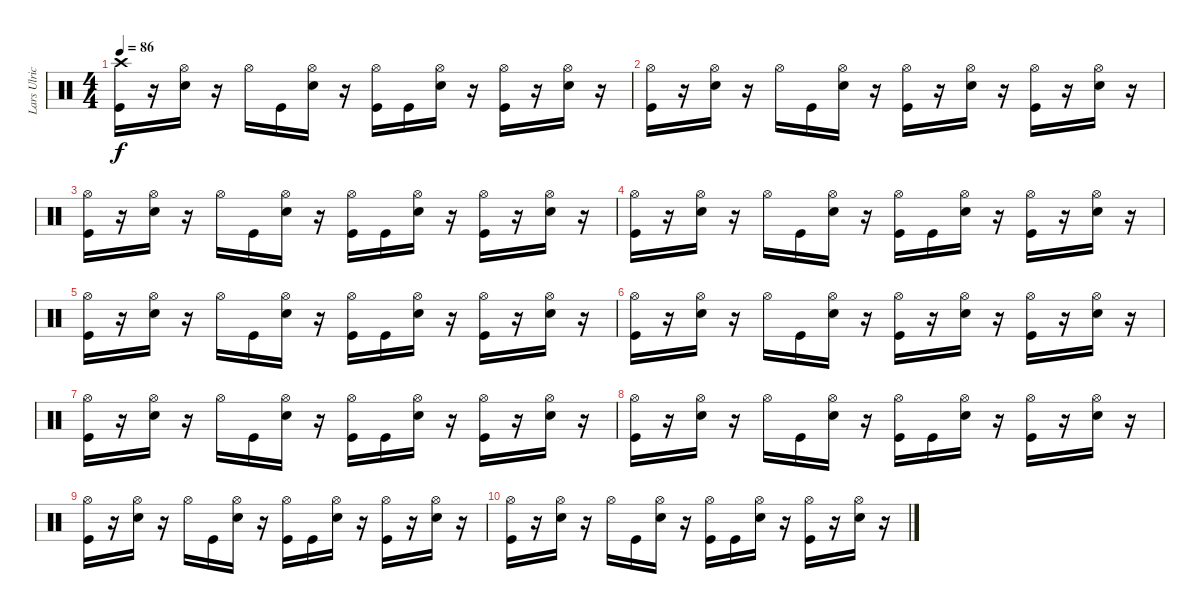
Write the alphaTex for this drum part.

\track ("Lars Ulrich" "Lars Ulric") {instrument percussion}
\staff {score}
\articulation defaults
\ts (4 4)
\tempo 86
\clef neutral
\ks c
("Crash high (hit)" "Kick (hit)").16{dy f volume 15} r.16 ("Hi-Hat (open)" "Snare (hit) 2").16 r.16 "Hi-Hat (open)".16 "Kick (hit)".16 ("Hi-Hat (open)" "Snare (hit) 2").16 r.16 ("Hi-Hat (open)" "Kick (hit)").16 "Kick (hit)".16 ("Hi-Hat (open)" "Snare (hit) 2").16 r.16 ("Hi-Hat (open)" "Kick (hit)").16 r.16 ("Hi-Hat (open)" "Snare (hit) 2").16 r.16 |
("Hi-Hat (open)" "Kick (hit)").16{volume 14} r.16 ("Hi-Hat (open)" "Snare (hit) 2").16 r.16 "Hi-Hat (open)".16 "Kick (hit)".16 ("Hi-Hat (open)" "Snare (hit) 2").16 r.16 ("Hi-Hat (open)" "Kick (hit)").16 r.16 ("Hi-Hat (open)" "Snare (hit) 2").16 r.16 ("Hi-Hat (open)" "Kick (hit)").16 r.16 ("Hi-Hat (open)" "Snare (hit) 2").16 r.16 |
("Hi-Hat (open)" "Kick (hit)").16{volume 14} r.16 ("Hi-Hat (open)" "Snare (hit) 2").16 r.16 "Hi-Hat (open)".16 "Kick (hit)".16 ("Hi-Hat (open)" "Snare (hit) 2").16 r.16 ("Hi-Hat (open)" "Kick (hit)").16 "Kick (hit)".16 ("Hi-Hat (open)" "Snare (hit) 2").16 r.16 ("Hi-Hat (open)" "Kick (hit)").16 r.16 ("Hi-Hat (open)" "Snare (hit) 2").16 r.16 |
("Hi-Hat (open)" "Kick (hit)").16{volume 12} r.16 ("Hi-Hat (open)" "Snare (hit) 2").16 r.16 "Hi-Hat (open)".16 "Kick (hit)".16 ("Hi-Hat (open)" "Snare (hit) 2").16 r.16 ("Hi-Hat (open)" "Kick (hit)").16 "Kick (hit)".16 ("Hi-Hat (open)" "Snare (hit) 2").16 r.16 ("Hi-Hat (open)" "Kick (hit)").16 r.16 ("Hi-Hat (open)" "Snare (hit) 2").16 r.16 |
("Hi-Hat (open)" "Kick (hit)").16{volume 10} r.16 ("Hi-Hat (open)" "Snare (hit) 2").16 r.16 "Hi-Hat (open)".16 "Kick (hit)".16 ("Hi-Hat (open)" "Snare (hit) 2").16 r.16 ("Hi-Hat (open)" "Kick (hit)").16 "Kick (hit)".16 ("Hi-Hat (open)" "Snare (hit) 2").16 r.16 ("Hi-Hat (open)" "Kick (hit)").16 r.16 ("Hi-Hat (open)" "Snare (hit) 2").16 r.16 |
("Hi-Hat (open)" "Kick (hit)").16{volume 8} r.16 ("Hi-Hat (open)" "Snare (hit) 2").16 r.16 "Hi-Hat (open)".16 "Kick (hit)".16 ("Hi-Hat (open)" "Snare (hit) 2").16 r.16 ("Hi-Hat (open)" "Kick (hit)").16 r.16 ("Hi-Hat (open)" "Snare (hit) 2").16 r.16 ("Hi-Hat (open)" "Kick (hit)").16 r.16 ("Hi-Hat (open)" "Snare (hit) 2").16 r.16 |
("Hi-Hat (open)" "Kick (hit)").16{volume 6} r.16 ("Hi-Hat (open)" "Snare (hit) 2").16 r.16 "Hi-Hat (open)".16 "Kick (hit)".16 ("Hi-Hat (open)" "Snare (hit) 2").16 r.16 ("Hi-Hat (open)" "Kick (hit)").16 "Kick (hit)".16 ("Hi-Hat (open)" "Snare (hit) 2").16 r.16 ("Hi-Hat (open)" "Kick (hit)").16 r.16 ("Hi-Hat (open)" "Snare (hit) 2").16 r.16 |
("Hi-Hat (open)" "Kick (hit)").16{volume 4} r.16 ("Hi-Hat (open)" "Snare (hit) 2").16 r.16 "Hi-Hat (open)".16 "Kick (hit)".16 ("Hi-Hat (open)" "Snare (hit) 2").16 r.16 ("Hi-Hat (open)" "Kick (hit)").16 "Kick (hit)".16 ("Hi-Hat (open)" "Snare (hit) 2").16 r.16 ("Hi-Hat (open)" "Kick (hit)").16 r.16 ("Hi-Hat (open)" "Snare (hit) 2").16 r.16 |
("Hi-Hat (open)" "Kick (hit)").16{volume 2} r.16 ("Hi-Hat (open)" "Snare (hit) 2").16 r.16 "Hi-Hat (open)".16 "Kick (hit)".16 ("Hi-Hat (open)" "Snare (hit) 2").16 r.16 ("Hi-Hat (open)" "Kick (hit)").16 "Kick (hit)".16 ("Hi-Hat (open)" "Snare (hit) 2").16 r.16 ("Hi-Hat (open)" "Kick (hit)").16 r.16 ("Hi-Hat (open)" "Snare (hit) 2").16 r.16 |
("Hi-Hat (open)" "Kick (hit)").16{volume 0} r.16 ("Hi-Hat (open)" "Snare (hit) 2").16 r.16 "Hi-Hat (open)".16 "Kick (hit)".16 ("Hi-Hat (open)" "Snare (hit) 2").16 r.16 ("Hi-Hat (open)" "Kick (hit)").16 "Kick (hit)".16 ("Hi-Hat (open)" "Snare (hit) 2").16 r.16 ("Hi-Hat (open)" "Kick (hit)").16 r.16 ("Hi-Hat (open)" "Snare (hit) 2").16 r.16
